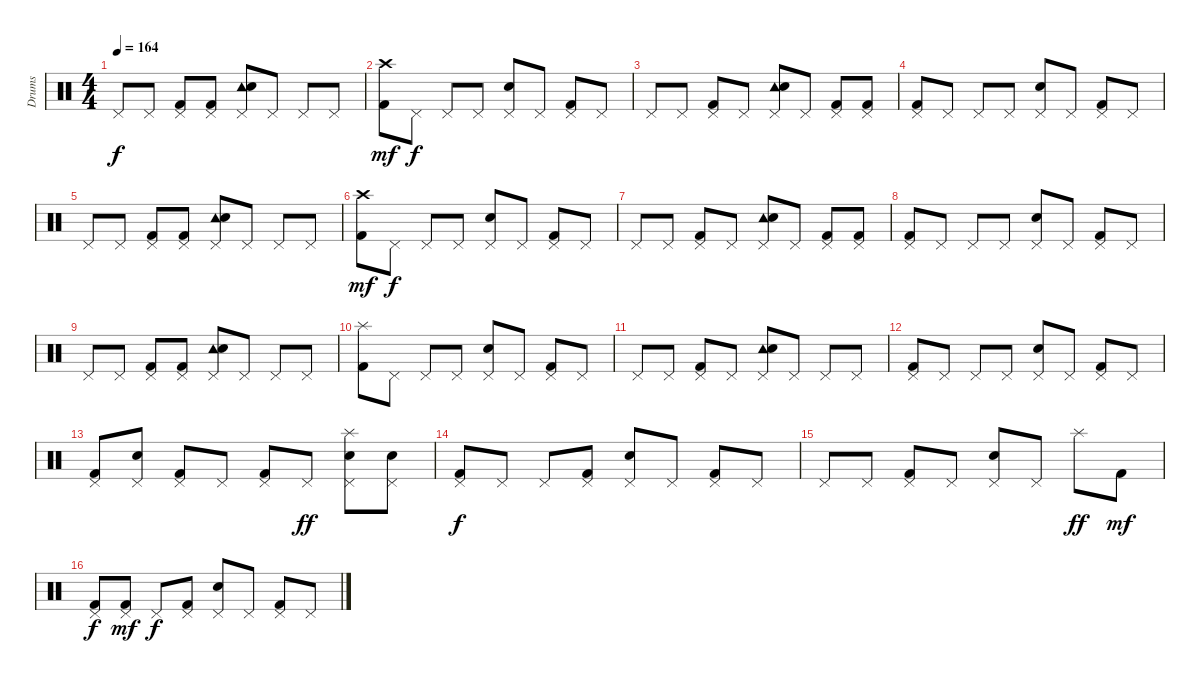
\track ("Drums" "Drums") {instrument percussion}
\staff {score}
\articulation defaults
\ts (4 4)
\tempo 164
\clef neutral
\ks c "Pedal Hi-Hat (hit)".8{dy f} "Pedal Hi-Hat (hit)".8
("Pedal Hi-Hat (hit)" "Kick (hit) 2").8 ("Pedal Hi-Hat (hit)" "Kick (hit) 2").8 ("Tambourine (hit)" "Pedal Hi-Hat (hit)" "Snare (hit) 2").8 "Pedal Hi-Hat (hit)".8 "Pedal Hi-Hat (hit)".8 "Pedal Hi-Hat (hit)".8 |
("Crash high (hit)" "Kick (hit) 2").8{dy mf} "Pedal Hi-Hat (hit)".8{dy f} "Pedal Hi-Hat (hit)".8 "Pedal Hi-Hat (hit)".8 ("Pedal Hi-Hat (hit)" "Snare (hit) 2").8 "Pedal Hi-Hat (hit)".8 ("Pedal Hi-Hat (hit)" "Kick (hit) 2").8 "Pedal Hi-Hat (hit)".8 |
"Pedal Hi-Hat (hit)".8 "Pedal Hi-Hat (hit)".8 ("Pedal Hi-Hat (hit)" "Kick (hit) 2").8 "Pedal Hi-Hat (hit)".8 ("Tambourine (hit)" "Pedal Hi-Hat (hit)" "Snare (hit) 2").8 "Pedal Hi-Hat (hit)".8 ("Pedal Hi-Hat (hit)" "Kick (hit) 2").8 ("Pedal Hi-Hat (hit)" "Kick (hit) 2").8 |
("Pedal Hi-Hat (hit)" "Kick (hit) 2").8 "Pedal Hi-Hat (hit)".8 "Pedal Hi-Hat (hit)".8 "Pedal Hi-Hat (hit)".8 ("Pedal Hi-Hat (hit)" "Snare (hit) 2").8 "Pedal Hi-Hat (hit)".8 ("Pedal Hi-Hat (hit)" "Kick (hit) 2").8 "Pedal Hi-Hat (hit)".8 |
"Pedal Hi-Hat (hit)".8 "Pedal Hi-Hat (hit)".8 ("Pedal Hi-Hat (hit)" "Kick (hit) 2").8 ("Pedal Hi-Hat (hit)" "Kick (hit) 2").8 ("Tambourine (hit)" "Pedal Hi-Hat (hit)" "Snare (hit) 2").8 "Pedal Hi-Hat (hit)".8 "Pedal Hi-Hat (hit)".8 "Pedal Hi-Hat (hit)".8 |
("Crash high (hit)" "Kick (hit) 2").8{dy mf} "Pedal Hi-Hat (hit)".8{dy f} "Pedal Hi-Hat (hit)".8 "Pedal Hi-Hat (hit)".8 ("Pedal Hi-Hat (hit)" "Snare (hit) 2").8 "Pedal Hi-Hat (hit)".8 ("Pedal Hi-Hat (hit)" "Kick (hit) 2").8 "Pedal Hi-Hat (hit)".8 |
"Pedal Hi-Hat (hit)".8 "Pedal Hi-Hat (hit)".8 ("Pedal Hi-Hat (hit)" "Kick (hit) 2").8 "Pedal Hi-Hat (hit)".8 ("Tambourine (hit)" "Pedal Hi-Hat (hit)" "Snare (hit) 2").8 "Pedal Hi-Hat (hit)".8 ("Pedal Hi-Hat (hit)" "Kick (hit) 2").8 ("Pedal Hi-Hat (hit)" "Kick (hit) 2").8 |
("Pedal Hi-Hat (hit)" "Kick (hit) 2").8 "Pedal Hi-Hat (hit)".8 "Pedal Hi-Hat (hit)".8 "Pedal Hi-Hat (hit)".8 ("Pedal Hi-Hat (hit)" "Snare (hit) 2").8 "Pedal Hi-Hat (hit)".8 ("Pedal Hi-Hat (hit)" "Kick (hit) 2").8 "Pedal Hi-Hat (hit)".8 |
"Pedal Hi-Hat (hit)".8 "Pedal Hi-Hat (hit)".8 ("Pedal Hi-Hat (hit)" "Kick (hit) 2").8 ("Pedal Hi-Hat (hit)" "Kick (hit) 2").8 ("Tambourine (hit)" "Pedal Hi-Hat (hit)" "Snare (hit) 2").8 "Pedal Hi-Hat (hit)".8 "Pedal Hi-Hat (hit)".8 "Pedal Hi-Hat (hit)".8 |
("Splash (hit)" "Kick (hit) 2").8 "Pedal Hi-Hat (hit)".8 "Pedal Hi-Hat (hit)".8 "Pedal Hi-Hat (hit)".8 ("Pedal Hi-Hat (hit)" "Snare (hit) 2").8 "Pedal Hi-Hat (hit)".8 ("Pedal Hi-Hat (hit)" "Kick (hit) 2").8 "Pedal Hi-Hat (hit)".8 |
"Pedal Hi-Hat (hit)".8 "Pedal Hi-Hat (hit)".8 ("Pedal Hi-Hat (hit)" "Kick (hit) 2").8 "Pedal Hi-Hat (hit)".8 ("Tambourine (hit)" "Pedal Hi-Hat (hit)" "Snare (hit) 2").8 "Pedal Hi-Hat (hit)".8 "Pedal Hi-Hat (hit)".8 "Pedal Hi-Hat (hit)".8 |
("Pedal Hi-Hat (hit)" "Kick (hit) 2").8 "Pedal Hi-Hat (hit)".8 "Pedal Hi-Hat (hit)".8 "Pedal Hi-Hat (hit)".8 ("Pedal Hi-Hat (hit)" "Snare (hit) 2").8 "Pedal Hi-Hat (hit)".8 ("Pedal Hi-Hat (hit)" "Kick (hit) 2").8 "Pedal Hi-Hat (hit)".8 |
("Pedal Hi-Hat (hit)" "Kick (hit) 2").8 ("Pedal Hi-Hat (hit)" "Snare (hit) 2").8 ("Pedal Hi-Hat (hit)" "Kick (hit) 2").8 "Pedal Hi-Hat (hit)".8 ("Pedal Hi-Hat (hit)" "Kick (hit) 2").8 "Pedal Hi-Hat (hit)".8{dy ff} ("Splash (hit)" "Pedal Hi-Hat (hit)" "Snare (hit) 2").8 ("Pedal Hi-Hat (hit)" "Snare (hit) 2").8 |
("Pedal Hi-Hat (hit)" "Kick (hit) 2").8{dy f} "Pedal Hi-Hat (hit)".8 "Pedal Hi-Hat (hit)".8 ("Pedal Hi-Hat (hit)" "Kick (hit) 2").8 ("Pedal Hi-Hat (hit)" "Snare (hit) 2").8 "Pedal Hi-Hat (hit)".8 ("Pedal Hi-Hat (hit)" "Kick (hit) 2").8 "Pedal Hi-Hat (hit)".8 |
"Pedal Hi-Hat (hit)".8 "Pedal Hi-Hat (hit)".8 ("Pedal Hi-Hat (hit)" "Kick (hit) 2").8 "Pedal Hi-Hat (hit)".8 ("Pedal Hi-Hat (hit)" "Snare (hit) 2").8 "Pedal Hi-Hat (hit)".8 "Splash (hit)".8{dy ff} "Kick (hit) 2".8{dy mf} |
("Pedal Hi-Hat (hit)" "Kick (hit) 2").8{dy f} ("Pedal Hi-Hat (hit)" "Kick (hit) 2").8{dy mf} "Pedal Hi-Hat (hit)".8{dy f} ("Pedal Hi-Hat (hit)" "Kick (hit) 2").8 ("Pedal Hi-Hat (hit)" "Snare (hit) 2").8 "Pedal Hi-Hat (hit)".8 ("Pedal Hi-Hat (hit)" "Kick (hit) 2").8 "Pedal Hi-Hat (hit)".8
